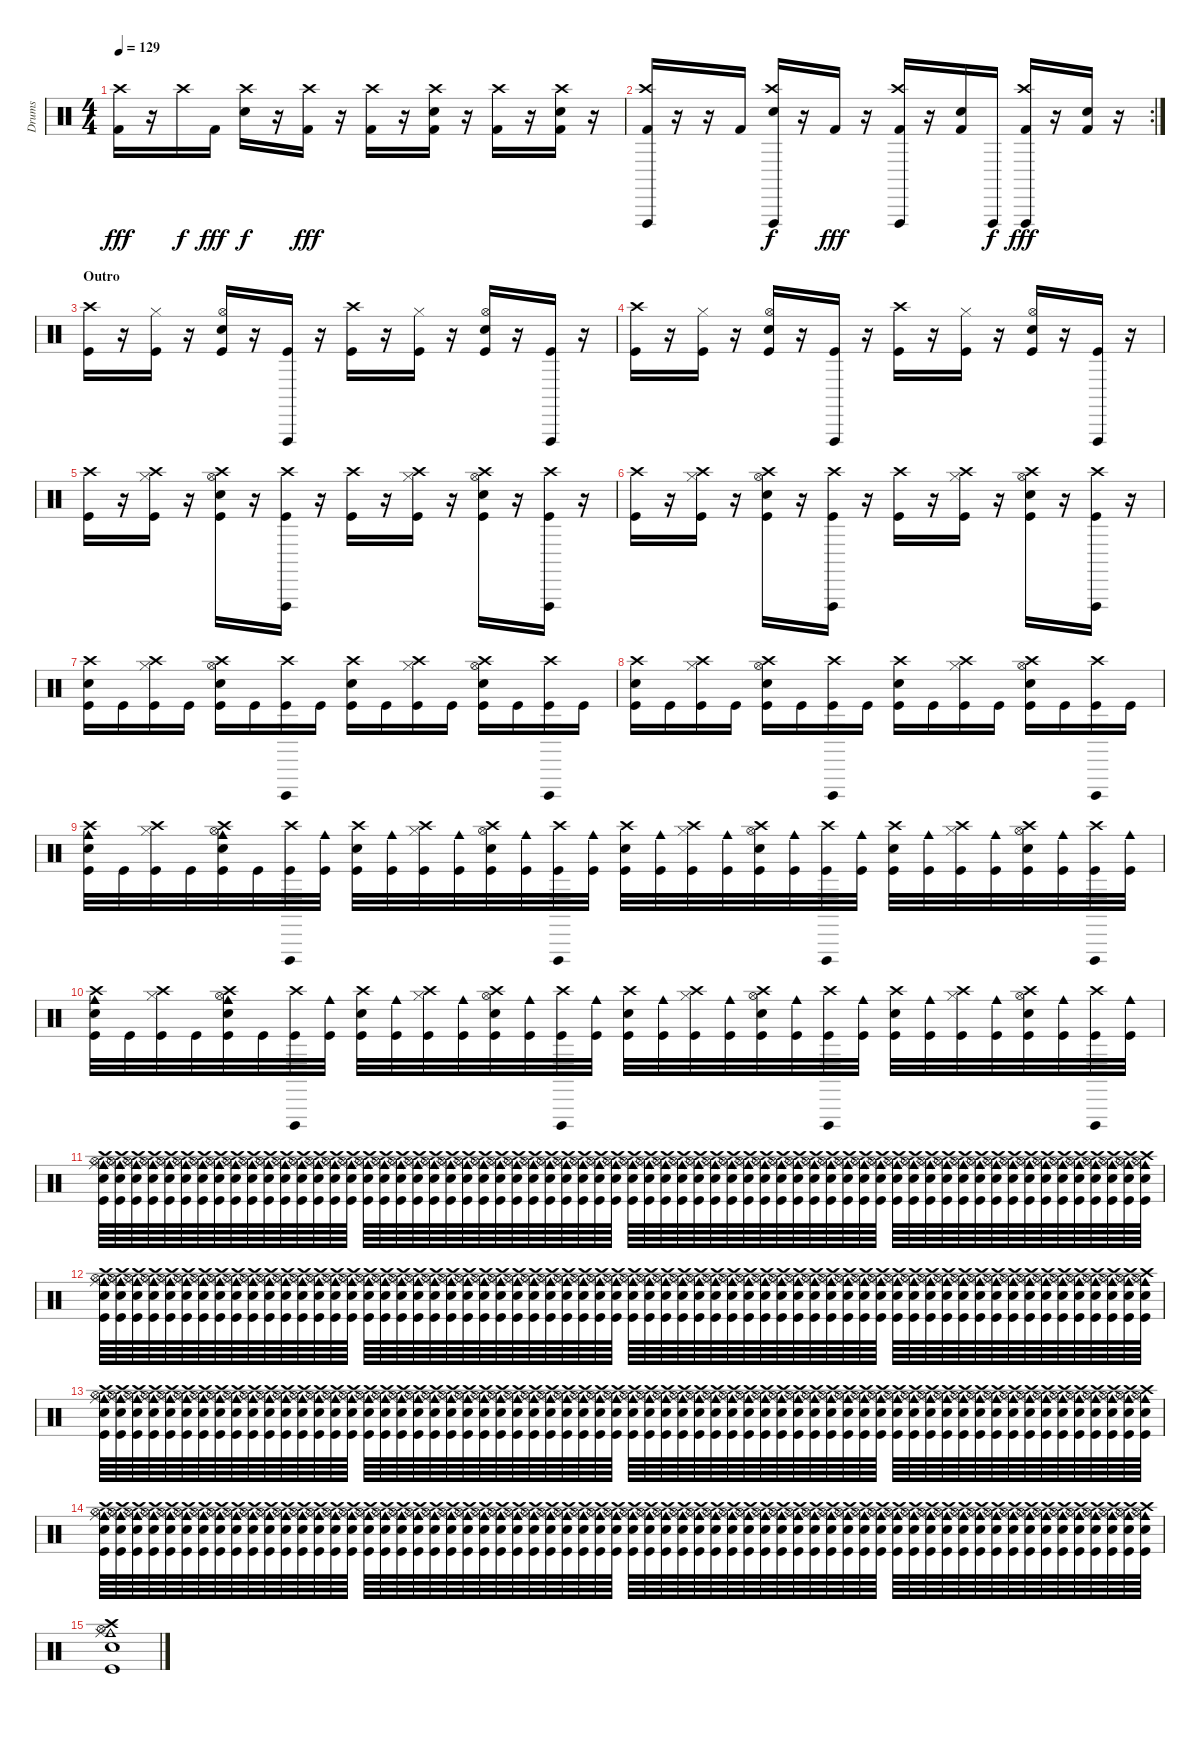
\track ("Drums" "Drums") {instrument percussion}
\staff {score}
\articulation defaults
\ts (4 4)
\tempo 129
\clef neutral
\ks c
("Crash high (hit)" "Kick (hit) 2").16{dy fff} r.16 "Crash high (hit)".16{dy f} "Kick (hit) 2".16{dy fff} ("Crash high (hit)" "Electric Snare (hit)").16{dy f} r.16 ("Crash high (hit)" "Kick (hit) 2").16{dy fff} r.16 ("Crash high (hit)" "Kick (hit) 2").16 r.16 ("Crash high (hit)" "Electric Snare (hit)" "Kick (hit) 2").16 r.16 ("Crash high (hit)" "Kick (hit) 2").16 r.16 ("Crash high (hit)" "Electric Snare (hit)" "Kick (hit) 2").16 r.16 |
\rc 2
("Crash high (hit)" "Vibraslap (hit)" "Kick (hit) 2").16 r.16 r.16 "Kick (hit) 2".16 ("Crash high (hit)" "Vibraslap (hit)" "Electric Snare (hit)").16{dy f} r.16 "Kick (hit) 2".16{dy fff} r.16 ("Crash high (hit)" "Vibraslap (hit)" "Kick (hit) 2").16 r.16 ("Electric Snare (hit)" "Kick (hit) 2").16 "Vibraslap (hit)".16{dy f} ("Crash high (hit)" "Vibraslap (hit)" "Kick (hit) 2").16{dy fff} r.16 ("Electric Snare (hit)" "Kick (hit) 2").16 r.16 |
\section ("" "Outro")
("Crash high (hit)" "Kick (hit)").16 r.16 ("Hi-Hat (closed)" "Kick (hit)").16 r.16 ("Hi-Hat (open)" "Snare (hit) 2" "Kick (hit)").16 r.16 ("Vibraslap (hit)" "Kick (hit)").16 r.16 ("Crash high (hit)" "Kick (hit)").16 r.16 ("Hi-Hat (closed)" "Kick (hit)").16 r.16 ("Hi-Hat (open)" "Snare (hit) 2" "Kick (hit)").16 r.16 ("Vibraslap (hit)" "Kick (hit)").16 r.16 |
("Crash high (hit)" "Kick (hit)").16 r.16 ("Hi-Hat (closed)" "Kick (hit)").16 r.16 ("Hi-Hat (open)" "Snare (hit) 2" "Kick (hit)").16 r.16 ("Vibraslap (hit)" "Kick (hit)").16 r.16 ("Crash high (hit)" "Kick (hit)").16 r.16 ("Hi-Hat (closed)" "Kick (hit)").16 r.16 ("Hi-Hat (open)" "Snare (hit) 2" "Kick (hit)").16 r.16 ("Vibraslap (hit)" "Kick (hit)").16 r.16 |
("Crash high (hit)" "Kick (hit)").16 r.16 ("Crash high (hit)" "Hi-Hat (closed)" "Kick (hit)").16 r.16 ("Crash high (hit)" "Hi-Hat (open)" "Snare (hit) 2" "Kick (hit)").16 r.16 ("Crash high (hit)" "Vibraslap (hit)" "Kick (hit)").16 r.16 ("Crash high (hit)" "Kick (hit)").16 r.16 ("Crash high (hit)" "Hi-Hat (closed)" "Kick (hit)").16 r.16 ("Crash high (hit)" "Hi-Hat (open)" "Snare (hit) 2" "Kick (hit)").16 r.16 ("Crash high (hit)" "Vibraslap (hit)" "Kick (hit)").16 r.16 |
("Crash high (hit)" "Kick (hit)").16 r.16 ("Crash high (hit)" "Hi-Hat (closed)" "Kick (hit)").16 r.16 ("Crash high (hit)" "Hi-Hat (open)" "Snare (hit) 2" "Kick (hit)").16 r.16 ("Crash high (hit)" "Vibraslap (hit)" "Kick (hit)").16 r.16 ("Crash high (hit)" "Kick (hit)").16 r.16 ("Crash high (hit)" "Hi-Hat (closed)" "Kick (hit)").16 r.16 ("Crash high (hit)" "Hi-Hat (open)" "Snare (hit) 2" "Kick (hit)").16 r.16 ("Crash high (hit)" "Vibraslap (hit)" "Kick (hit)").16 r.16 |
("Crash high (hit)" "Snare (hit) 2" "Kick (hit)").16 "Kick (hit)".16 ("Crash high (hit)" "Hi-Hat (closed)" "Kick (hit)").16 "Kick (hit)".16 ("Crash high (hit)" "Hi-Hat (open)" "Snare (hit) 2" "Kick (hit)").16 "Kick (hit)".16 ("Crash high (hit)" "Vibraslap (hit)" "Kick (hit)").16 "Kick (hit)".16 ("Crash high (hit)" "Snare (hit) 2" "Kick (hit)").16 "Kick (hit)".16 ("Crash high (hit)" "Hi-Hat (closed)" "Kick (hit)").16 "Kick (hit)".16 ("Crash high (hit)" "Hi-Hat (open)" "Snare (hit) 2" "Kick (hit)").16 "Kick (hit)".16 ("Crash high (hit)" "Vibraslap (hit)" "Kick (hit)").16 "Kick (hit)".16 |
("Crash high (hit)" "Snare (hit) 2" "Kick (hit)").16 "Kick (hit)".16 ("Crash high (hit)" "Hi-Hat (closed)" "Kick (hit)").16 "Kick (hit)".16 ("Crash high (hit)" "Hi-Hat (open)" "Snare (hit) 2" "Kick (hit)").16 "Kick (hit)".16 ("Crash high (hit)" "Vibraslap (hit)" "Kick (hit)").16 "Kick (hit)".16 ("Crash high (hit)" "Snare (hit) 2" "Kick (hit)").16 "Kick (hit)".16 ("Crash high (hit)" "Hi-Hat (closed)" "Kick (hit)").16 "Kick (hit)".16 ("Crash high (hit)" "Hi-Hat (open)" "Snare (hit) 2" "Kick (hit)").16 "Kick (hit)".16 ("Crash high (hit)" "Vibraslap (hit)" "Kick (hit)").16 "Kick (hit)".16 |
("Cowbell medium (hit)" "Crash high (hit)" "Snare (hit) 2" "Kick (hit)").32 "Kick (hit)".32 ("Crash high (hit)" "Hi-Hat (closed)" "Kick (hit)").32 "Kick (hit)".32 ("Cowbell medium (hit)" "Crash high (hit)" "Hi-Hat (open)" "Snare (hit) 2" "Kick (hit)").32 "Kick (hit)".32 ("Crash high (hit)" "Vibraslap (hit)" "Kick (hit)").32 ("Cowbell medium (hit)" "Kick (hit)").32 ("Crash high (hit)" "Snare (hit) 2" "Kick (hit)").32 ("Cowbell medium (hit)" "Kick (hit)").32 ("Crash high (hit)" "Hi-Hat (closed)" "Kick (hit)").32 ("Cowbell medium (hit)" "Kick (hit)").32 ("Crash high (hit)" "Hi-Hat (open)" "Snare (hit) 2" "Kick (hit)").32 ("Cowbell medium (hit)" "Kick (hit)").32 ("Crash high (hit)" "Vibraslap (hit)" "Kick (hit)").32 ("Cowbell medium (hit)" "Kick (hit)").32 ("Crash high (hit)" "Snare (hit) 2" "Kick (hit)").32 ("Cowbell medium (hit)" "Kick (hit)").32 ("Crash high (hit)" "Hi-Hat (closed)" "Kick (hit)").32 ("Cowbell medium (hit)" "Kick (hit)").32 ("Crash high (hit)" "Hi-Hat (open)" "Snare (hit) 2" "Kick (hit)").32 ("Cowbell medium (hit)" "Kick (hit)").32 ("Crash high (hit)" "Vibraslap (hit)" "Kick (hit)").32 ("Cowbell medium (hit)" "Kick (hit)").32 ("Crash high (hit)" "Snare (hit) 2" "Kick (hit)").32 ("Cowbell medium (hit)" "Kick (hit)").32 ("Crash high (hit)" "Hi-Hat (closed)" "Kick (hit)").32 ("Cowbell medium (hit)" "Kick (hit)").32 ("Crash high (hit)" "Hi-Hat (open)" "Snare (hit) 2" "Kick (hit)").32 ("Cowbell medium (hit)" "Kick (hit)").32 ("Crash high (hit)" "Vibraslap (hit)" "Kick (hit)").32 ("Cowbell medium (hit)" "Kick (hit)").32 |
("Cowbell medium (hit)" "Crash high (hit)" "Snare (hit) 2" "Kick (hit)").32 "Kick (hit)".32 ("Crash high (hit)" "Hi-Hat (closed)" "Kick (hit)").32 "Kick (hit)".32 ("Cowbell medium (hit)" "Crash high (hit)" "Hi-Hat (open)" "Snare (hit) 2" "Kick (hit)").32 "Kick (hit)".32 ("Crash high (hit)" "Vibraslap (hit)" "Kick (hit)").32 ("Cowbell medium (hit)" "Kick (hit)").32 ("Crash high (hit)" "Snare (hit) 2" "Kick (hit)").32 ("Cowbell medium (hit)" "Kick (hit)").32 ("Crash high (hit)" "Hi-Hat (closed)" "Kick (hit)").32 ("Cowbell medium (hit)" "Kick (hit)").32 ("Crash high (hit)" "Hi-Hat (open)" "Snare (hit) 2" "Kick (hit)").32 ("Cowbell medium (hit)" "Kick (hit)").32 ("Crash high (hit)" "Vibraslap (hit)" "Kick (hit)").32 ("Cowbell medium (hit)" "Kick (hit)").32 ("Crash high (hit)" "Snare (hit) 2" "Kick (hit)").32 ("Cowbell medium (hit)" "Kick (hit)").32 ("Crash high (hit)" "Hi-Hat (closed)" "Kick (hit)").32 ("Cowbell medium (hit)" "Kick (hit)").32 ("Crash high (hit)" "Hi-Hat (open)" "Snare (hit) 2" "Kick (hit)").32 ("Cowbell medium (hit)" "Kick (hit)").32 ("Crash high (hit)" "Vibraslap (hit)" "Kick (hit)").32 ("Cowbell medium (hit)" "Kick (hit)").32 ("Crash high (hit)" "Snare (hit) 2" "Kick (hit)").32 ("Cowbell medium (hit)" "Kick (hit)").32 ("Crash high (hit)" "Hi-Hat (closed)" "Kick (hit)").32 ("Cowbell medium (hit)" "Kick (hit)").32 ("Crash high (hit)" "Hi-Hat (open)" "Snare (hit) 2" "Kick (hit)").32 ("Cowbell medium (hit)" "Kick (hit)").32 ("Crash high (hit)" "Vibraslap (hit)" "Kick (hit)").32 ("Cowbell medium (hit)" "Kick (hit)").32 |
("Snare (hit) 2" "Cowbell medium (hit)" "Crash high (hit)" "Ride (middle)" "Hi-Hat (open)" "Kick (hit)").64 ("Snare (hit) 2" "Cowbell medium (hit)" "Crash high (hit)" "Ride (middle)" "Hi-Hat (open)" "Kick (hit)").64 ("Snare (hit) 2" "Cowbell medium (hit)" "Crash high (hit)" "Ride (middle)" "Hi-Hat (open)" "Kick (hit)").64 ("Snare (hit) 2" "Cowbell medium (hit)" "Crash high (hit)" "Ride (middle)" "Hi-Hat (open)" "Kick (hit)").64 ("Snare (hit) 2" "Cowbell medium (hit)" "Crash high (hit)" "Ride (middle)" "Hi-Hat (open)" "Kick (hit)").64 ("Snare (hit) 2" "Cowbell medium (hit)" "Crash high (hit)" "Ride (middle)" "Hi-Hat (open)" "Kick (hit)").64 ("Snare (hit) 2" "Cowbell medium (hit)" "Crash high (hit)" "Ride (middle)" "Hi-Hat (open)" "Kick (hit)").64 ("Snare (hit) 2" "Cowbell medium (hit)" "Crash high (hit)" "Ride (middle)" "Hi-Hat (open)" "Kick (hit)").64 ("Snare (hit) 2" "Cowbell medium (hit)" "Crash high (hit)" "Ride (middle)" "Hi-Hat (open)" "Kick (hit)").64 ("Snare (hit) 2" "Cowbell medium (hit)" "Crash high (hit)" "Ride (middle)" "Hi-Hat (open)" "Kick (hit)").64 ("Snare (hit) 2" "Cowbell medium (hit)" "Crash high (hit)" "Ride (middle)" "Hi-Hat (open)" "Kick (hit)").64 ("Snare (hit) 2" "Cowbell medium (hit)" "Crash high (hit)" "Ride (middle)" "Hi-Hat (open)" "Kick (hit)").64 ("Snare (hit) 2" "Cowbell medium (hit)" "Crash high (hit)" "Ride (middle)" "Hi-Hat (open)" "Kick (hit)").64 ("Snare (hit) 2" "Cowbell medium (hit)" "Crash high (hit)" "Ride (middle)" "Hi-Hat (open)" "Kick (hit)").64 ("Snare (hit) 2" "Cowbell medium (hit)" "Crash high (hit)" "Ride (middle)" "Hi-Hat (open)" "Kick (hit)").64 ("Snare (hit) 2" "Cowbell medium (hit)" "Crash high (hit)" "Ride (middle)" "Hi-Hat (open)" "Kick (hit)").64 ("Snare (hit) 2" "Cowbell medium (hit)" "Crash high (hit)" "Ride (middle)" "Hi-Hat (open)" "Kick (hit)").64 ("Snare (hit) 2" "Cowbell medium (hit)" "Crash high (hit)" "Ride (middle)" "Hi-Hat (open)" "Kick (hit)").64 ("Snare (hit) 2" "Cowbell medium (hit)" "Crash high (hit)" "Ride (middle)" "Hi-Hat (open)" "Kick (hit)").64 ("Snare (hit) 2" "Cowbell medium (hit)" "Crash high (hit)" "Ride (middle)" "Hi-Hat (open)" "Kick (hit)").64 ("Snare (hit) 2" "Cowbell medium (hit)" "Crash high (hit)" "Ride (middle)" "Hi-Hat (open)" "Kick (hit)").64 ("Snare (hit) 2" "Cowbell medium (hit)" "Crash high (hit)" "Ride (middle)" "Hi-Hat (open)" "Kick (hit)").64 ("Snare (hit) 2" "Cowbell medium (hit)" "Crash high (hit)" "Ride (middle)" "Hi-Hat (open)" "Kick (hit)").64 ("Snare (hit) 2" "Cowbell medium (hit)" "Crash high (hit)" "Ride (middle)" "Hi-Hat (open)" "Kick (hit)").64 ("Snare (hit) 2" "Cowbell medium (hit)" "Crash high (hit)" "Ride (middle)" "Hi-Hat (open)" "Kick (hit)").64 ("Snare (hit) 2" "Cowbell medium (hit)" "Crash high (hit)" "Ride (middle)" "Hi-Hat (open)" "Kick (hit)").64 ("Snare (hit) 2" "Cowbell medium (hit)" "Crash high (hit)" "Ride (middle)" "Hi-Hat (open)" "Kick (hit)").64 ("Snare (hit) 2" "Cowbell medium (hit)" "Crash high (hit)" "Ride (middle)" "Hi-Hat (open)" "Kick (hit)").64 ("Snare (hit) 2" "Cowbell medium (hit)" "Crash high (hit)" "Ride (middle)" "Hi-Hat (open)" "Kick (hit)").64 ("Snare (hit) 2" "Cowbell medium (hit)" "Crash high (hit)" "Ride (middle)" "Hi-Hat (open)" "Kick (hit)").64 ("Snare (hit) 2" "Cowbell medium (hit)" "Crash high (hit)" "Ride (middle)" "Hi-Hat (open)" "Kick (hit)").64 ("Snare (hit) 2" "Cowbell medium (hit)" "Crash high (hit)" "Ride (middle)" "Hi-Hat (open)" "Kick (hit)").64 ("Snare (hit) 2" "Cowbell medium (hit)" "Crash high (hit)" "Ride (middle)" "Hi-Hat (open)" "Kick (hit)").64 ("Snare (hit) 2" "Cowbell medium (hit)" "Crash high (hit)" "Ride (middle)" "Hi-Hat (open)" "Kick (hit)").64 ("Snare (hit) 2" "Cowbell medium (hit)" "Crash high (hit)" "Ride (middle)" "Hi-Hat (open)" "Kick (hit)").64 ("Snare (hit) 2" "Cowbell medium (hit)" "Crash high (hit)" "Ride (middle)" "Hi-Hat (open)" "Kick (hit)").64 ("Snare (hit) 2" "Cowbell medium (hit)" "Crash high (hit)" "Ride (middle)" "Hi-Hat (open)" "Kick (hit)").64 ("Snare (hit) 2" "Cowbell medium (hit)" "Crash high (hit)" "Ride (middle)" "Hi-Hat (open)" "Kick (hit)").64 ("Snare (hit) 2" "Cowbell medium (hit)" "Crash high (hit)" "Ride (middle)" "Hi-Hat (open)" "Kick (hit)").64 ("Snare (hit) 2" "Cowbell medium (hit)" "Crash high (hit)" "Ride (middle)" "Hi-Hat (open)" "Kick (hit)").64 ("Snare (hit) 2" "Cowbell medium (hit)" "Crash high (hit)" "Ride (middle)" "Hi-Hat (open)" "Kick (hit)").64 ("Snare (hit) 2" "Cowbell medium (hit)" "Crash high (hit)" "Ride (middle)" "Hi-Hat (open)" "Kick (hit)").64 ("Snare (hit) 2" "Cowbell medium (hit)" "Crash high (hit)" "Ride (middle)" "Hi-Hat (open)" "Kick (hit)").64 ("Snare (hit) 2" "Cowbell medium (hit)" "Crash high (hit)" "Ride (middle)" "Hi-Hat (open)" "Kick (hit)").64 ("Snare (hit) 2" "Cowbell medium (hit)" "Crash high (hit)" "Ride (middle)" "Hi-Hat (open)" "Kick (hit)").64 ("Snare (hit) 2" "Cowbell medium (hit)" "Crash high (hit)" "Ride (middle)" "Hi-Hat (open)" "Kick (hit)").64 ("Snare (hit) 2" "Cowbell medium (hit)" "Crash high (hit)" "Ride (middle)" "Hi-Hat (open)" "Kick (hit)").64 ("Snare (hit) 2" "Cowbell medium (hit)" "Crash high (hit)" "Ride (middle)" "Hi-Hat (open)" "Kick (hit)").64 ("Snare (hit) 2" "Cowbell medium (hit)" "Crash high (hit)" "Ride (middle)" "Hi-Hat (open)" "Kick (hit)").64 ("Snare (hit) 2" "Cowbell medium (hit)" "Crash high (hit)" "Ride (middle)" "Hi-Hat (open)" "Kick (hit)").64 ("Snare (hit) 2" "Cowbell medium (hit)" "Crash high (hit)" "Ride (middle)" "Hi-Hat (open)" "Kick (hit)").64 ("Snare (hit) 2" "Cowbell medium (hit)" "Crash high (hit)" "Ride (middle)" "Hi-Hat (open)" "Kick (hit)").64 ("Snare (hit) 2" "Cowbell medium (hit)" "Crash high (hit)" "Ride (middle)" "Hi-Hat (open)" "Kick (hit)").64 ("Snare (hit) 2" "Cowbell medium (hit)" "Crash high (hit)" "Ride (middle)" "Hi-Hat (open)" "Kick (hit)").64 ("Snare (hit) 2" "Cowbell medium (hit)" "Crash high (hit)" "Ride (middle)" "Hi-Hat (open)" "Kick (hit)").64 ("Snare (hit) 2" "Cowbell medium (hit)" "Crash high (hit)" "Ride (middle)" "Hi-Hat (open)" "Kick (hit)").64 ("Snare (hit) 2" "Cowbell medium (hit)" "Crash high (hit)" "Ride (middle)" "Hi-Hat (open)" "Kick (hit)").64 ("Snare (hit) 2" "Cowbell medium (hit)" "Crash high (hit)" "Ride (middle)" "Hi-Hat (open)" "Kick (hit)").64 ("Snare (hit) 2" "Cowbell medium (hit)" "Crash high (hit)" "Ride (middle)" "Hi-Hat (open)" "Kick (hit)").64 ("Snare (hit) 2" "Cowbell medium (hit)" "Crash high (hit)" "Ride (middle)" "Hi-Hat (open)" "Kick (hit)").64 ("Snare (hit) 2" "Cowbell medium (hit)" "Crash high (hit)" "Ride (middle)" "Hi-Hat (open)" "Kick (hit)").64 ("Snare (hit) 2" "Cowbell medium (hit)" "Crash high (hit)" "Ride (middle)" "Hi-Hat (open)" "Kick (hit)").64 ("Snare (hit) 2" "Cowbell medium (hit)" "Crash high (hit)" "Ride (middle)" "Hi-Hat (open)" "Kick (hit)").64 ("Snare (hit) 2" "Cowbell medium (hit)" "Crash high (hit)" "Ride (middle)" "Hi-Hat (open)" "Kick (hit)").64 |
("Snare (hit) 2" "Cowbell medium (hit)" "Crash high (hit)" "Ride (middle)" "Hi-Hat (open)" "Kick (hit)").64 ("Snare (hit) 2" "Cowbell medium (hit)" "Crash high (hit)" "Ride (middle)" "Hi-Hat (open)" "Kick (hit)").64 ("Snare (hit) 2" "Cowbell medium (hit)" "Crash high (hit)" "Ride (middle)" "Hi-Hat (open)" "Kick (hit)").64 ("Snare (hit) 2" "Cowbell medium (hit)" "Crash high (hit)" "Ride (middle)" "Hi-Hat (open)" "Kick (hit)").64 ("Snare (hit) 2" "Cowbell medium (hit)" "Crash high (hit)" "Ride (middle)" "Hi-Hat (open)" "Kick (hit)").64 ("Snare (hit) 2" "Cowbell medium (hit)" "Crash high (hit)" "Ride (middle)" "Hi-Hat (open)" "Kick (hit)").64 ("Snare (hit) 2" "Cowbell medium (hit)" "Crash high (hit)" "Ride (middle)" "Hi-Hat (open)" "Kick (hit)").64 ("Snare (hit) 2" "Cowbell medium (hit)" "Crash high (hit)" "Ride (middle)" "Hi-Hat (open)" "Kick (hit)").64 ("Snare (hit) 2" "Cowbell medium (hit)" "Crash high (hit)" "Ride (middle)" "Hi-Hat (open)" "Kick (hit)").64 ("Snare (hit) 2" "Cowbell medium (hit)" "Crash high (hit)" "Ride (middle)" "Hi-Hat (open)" "Kick (hit)").64 ("Snare (hit) 2" "Cowbell medium (hit)" "Crash high (hit)" "Ride (middle)" "Hi-Hat (open)" "Kick (hit)").64 ("Snare (hit) 2" "Cowbell medium (hit)" "Crash high (hit)" "Ride (middle)" "Hi-Hat (open)" "Kick (hit)").64 ("Snare (hit) 2" "Cowbell medium (hit)" "Crash high (hit)" "Ride (middle)" "Hi-Hat (open)" "Kick (hit)").64 ("Snare (hit) 2" "Cowbell medium (hit)" "Crash high (hit)" "Ride (middle)" "Hi-Hat (open)" "Kick (hit)").64 ("Snare (hit) 2" "Cowbell medium (hit)" "Crash high (hit)" "Ride (middle)" "Hi-Hat (open)" "Kick (hit)").64 ("Snare (hit) 2" "Cowbell medium (hit)" "Crash high (hit)" "Ride (middle)" "Hi-Hat (open)" "Kick (hit)").64 ("Snare (hit) 2" "Cowbell medium (hit)" "Crash high (hit)" "Ride (middle)" "Hi-Hat (open)" "Kick (hit)").64 ("Snare (hit) 2" "Cowbell medium (hit)" "Crash high (hit)" "Ride (middle)" "Hi-Hat (open)" "Kick (hit)").64 ("Snare (hit) 2" "Cowbell medium (hit)" "Crash high (hit)" "Ride (middle)" "Hi-Hat (open)" "Kick (hit)").64 ("Snare (hit) 2" "Cowbell medium (hit)" "Crash high (hit)" "Ride (middle)" "Hi-Hat (open)" "Kick (hit)").64 ("Snare (hit) 2" "Cowbell medium (hit)" "Crash high (hit)" "Ride (middle)" "Hi-Hat (open)" "Kick (hit)").64 ("Snare (hit) 2" "Cowbell medium (hit)" "Crash high (hit)" "Ride (middle)" "Hi-Hat (open)" "Kick (hit)").64 ("Snare (hit) 2" "Cowbell medium (hit)" "Crash high (hit)" "Ride (middle)" "Hi-Hat (open)" "Kick (hit)").64 ("Snare (hit) 2" "Cowbell medium (hit)" "Crash high (hit)" "Ride (middle)" "Hi-Hat (open)" "Kick (hit)").64 ("Snare (hit) 2" "Cowbell medium (hit)" "Crash high (hit)" "Ride (middle)" "Hi-Hat (open)" "Kick (hit)").64 ("Snare (hit) 2" "Cowbell medium (hit)" "Crash high (hit)" "Ride (middle)" "Hi-Hat (open)" "Kick (hit)").64 ("Snare (hit) 2" "Cowbell medium (hit)" "Crash high (hit)" "Ride (middle)" "Hi-Hat (open)" "Kick (hit)").64 ("Snare (hit) 2" "Cowbell medium (hit)" "Crash high (hit)" "Ride (middle)" "Hi-Hat (open)" "Kick (hit)").64 ("Snare (hit) 2" "Cowbell medium (hit)" "Crash high (hit)" "Ride (middle)" "Hi-Hat (open)" "Kick (hit)").64 ("Snare (hit) 2" "Cowbell medium (hit)" "Crash high (hit)" "Ride (middle)" "Hi-Hat (open)" "Kick (hit)").64 ("Snare (hit) 2" "Cowbell medium (hit)" "Crash high (hit)" "Ride (middle)" "Hi-Hat (open)" "Kick (hit)").64 ("Snare (hit) 2" "Cowbell medium (hit)" "Crash high (hit)" "Ride (middle)" "Hi-Hat (open)" "Kick (hit)").64 ("Snare (hit) 2" "Cowbell medium (hit)" "Crash high (hit)" "Ride (middle)" "Hi-Hat (open)" "Kick (hit)").64 ("Snare (hit) 2" "Cowbell medium (hit)" "Crash high (hit)" "Ride (middle)" "Hi-Hat (open)" "Kick (hit)").64 ("Snare (hit) 2" "Cowbell medium (hit)" "Crash high (hit)" "Ride (middle)" "Hi-Hat (open)" "Kick (hit)").64 ("Snare (hit) 2" "Cowbell medium (hit)" "Crash high (hit)" "Ride (middle)" "Hi-Hat (open)" "Kick (hit)").64 ("Snare (hit) 2" "Cowbell medium (hit)" "Crash high (hit)" "Ride (middle)" "Hi-Hat (open)" "Kick (hit)").64 ("Snare (hit) 2" "Cowbell medium (hit)" "Crash high (hit)" "Ride (middle)" "Hi-Hat (open)" "Kick (hit)").64 ("Snare (hit) 2" "Cowbell medium (hit)" "Crash high (hit)" "Ride (middle)" "Hi-Hat (open)" "Kick (hit)").64 ("Snare (hit) 2" "Cowbell medium (hit)" "Crash high (hit)" "Ride (middle)" "Hi-Hat (open)" "Kick (hit)").64 ("Snare (hit) 2" "Cowbell medium (hit)" "Crash high (hit)" "Ride (middle)" "Hi-Hat (open)" "Kick (hit)").64 ("Snare (hit) 2" "Cowbell medium (hit)" "Crash high (hit)" "Ride (middle)" "Hi-Hat (open)" "Kick (hit)").64 ("Snare (hit) 2" "Cowbell medium (hit)" "Crash high (hit)" "Ride (middle)" "Hi-Hat (open)" "Kick (hit)").64 ("Snare (hit) 2" "Cowbell medium (hit)" "Crash high (hit)" "Ride (middle)" "Hi-Hat (open)" "Kick (hit)").64 ("Snare (hit) 2" "Cowbell medium (hit)" "Crash high (hit)" "Ride (middle)" "Hi-Hat (open)" "Kick (hit)").64 ("Snare (hit) 2" "Cowbell medium (hit)" "Crash high (hit)" "Ride (middle)" "Hi-Hat (open)" "Kick (hit)").64 ("Snare (hit) 2" "Cowbell medium (hit)" "Crash high (hit)" "Ride (middle)" "Hi-Hat (open)" "Kick (hit)").64 ("Snare (hit) 2" "Cowbell medium (hit)" "Crash high (hit)" "Ride (middle)" "Hi-Hat (open)" "Kick (hit)").64 ("Snare (hit) 2" "Cowbell medium (hit)" "Crash high (hit)" "Ride (middle)" "Hi-Hat (open)" "Kick (hit)").64 ("Snare (hit) 2" "Cowbell medium (hit)" "Crash high (hit)" "Ride (middle)" "Hi-Hat (open)" "Kick (hit)").64 ("Snare (hit) 2" "Cowbell medium (hit)" "Crash high (hit)" "Ride (middle)" "Hi-Hat (open)" "Kick (hit)").64 ("Snare (hit) 2" "Cowbell medium (hit)" "Crash high (hit)" "Ride (middle)" "Hi-Hat (open)" "Kick (hit)").64 ("Snare (hit) 2" "Cowbell medium (hit)" "Crash high (hit)" "Ride (middle)" "Hi-Hat (open)" "Kick (hit)").64 ("Snare (hit) 2" "Cowbell medium (hit)" "Crash high (hit)" "Ride (middle)" "Hi-Hat (open)" "Kick (hit)").64 ("Snare (hit) 2" "Cowbell medium (hit)" "Crash high (hit)" "Ride (middle)" "Hi-Hat (open)" "Kick (hit)").64 ("Snare (hit) 2" "Cowbell medium (hit)" "Crash high (hit)" "Ride (middle)" "Hi-Hat (open)" "Kick (hit)").64 ("Snare (hit) 2" "Cowbell medium (hit)" "Crash high (hit)" "Ride (middle)" "Hi-Hat (open)" "Kick (hit)").64 ("Snare (hit) 2" "Cowbell medium (hit)" "Crash high (hit)" "Ride (middle)" "Hi-Hat (open)" "Kick (hit)").64 ("Snare (hit) 2" "Cowbell medium (hit)" "Crash high (hit)" "Ride (middle)" "Hi-Hat (open)" "Kick (hit)").64 ("Snare (hit) 2" "Cowbell medium (hit)" "Crash high (hit)" "Ride (middle)" "Hi-Hat (open)" "Kick (hit)").64 ("Snare (hit) 2" "Cowbell medium (hit)" "Crash high (hit)" "Ride (middle)" "Hi-Hat (open)" "Kick (hit)").64 ("Snare (hit) 2" "Cowbell medium (hit)" "Crash high (hit)" "Ride (middle)" "Hi-Hat (open)" "Kick (hit)").64 ("Snare (hit) 2" "Cowbell medium (hit)" "Crash high (hit)" "Ride (middle)" "Hi-Hat (open)" "Kick (hit)").64 ("Snare (hit) 2" "Cowbell medium (hit)" "Crash high (hit)" "Ride (middle)" "Hi-Hat (open)" "Kick (hit)").64 |
("Snare (hit) 2" "Cowbell medium (hit)" "Crash high (hit)" "Ride (middle)" "Hi-Hat (open)" "Kick (hit)").64 ("Snare (hit) 2" "Cowbell medium (hit)" "Crash high (hit)" "Ride (middle)" "Hi-Hat (open)" "Kick (hit)").64 ("Snare (hit) 2" "Cowbell medium (hit)" "Crash high (hit)" "Ride (middle)" "Hi-Hat (open)" "Kick (hit)").64 ("Snare (hit) 2" "Cowbell medium (hit)" "Crash high (hit)" "Ride (middle)" "Hi-Hat (open)" "Kick (hit)").64 ("Snare (hit) 2" "Cowbell medium (hit)" "Crash high (hit)" "Ride (middle)" "Hi-Hat (open)" "Kick (hit)").64 ("Snare (hit) 2" "Cowbell medium (hit)" "Crash high (hit)" "Ride (middle)" "Hi-Hat (open)" "Kick (hit)").64 ("Snare (hit) 2" "Cowbell medium (hit)" "Crash high (hit)" "Ride (middle)" "Hi-Hat (open)" "Kick (hit)").64 ("Snare (hit) 2" "Cowbell medium (hit)" "Crash high (hit)" "Ride (middle)" "Hi-Hat (open)" "Kick (hit)").64 ("Snare (hit) 2" "Cowbell medium (hit)" "Crash high (hit)" "Ride (middle)" "Hi-Hat (open)" "Kick (hit)").64 ("Snare (hit) 2" "Cowbell medium (hit)" "Crash high (hit)" "Ride (middle)" "Hi-Hat (open)" "Kick (hit)").64 ("Snare (hit) 2" "Cowbell medium (hit)" "Crash high (hit)" "Ride (middle)" "Hi-Hat (open)" "Kick (hit)").64 ("Snare (hit) 2" "Cowbell medium (hit)" "Crash high (hit)" "Ride (middle)" "Hi-Hat (open)" "Kick (hit)").64 ("Snare (hit) 2" "Cowbell medium (hit)" "Crash high (hit)" "Ride (middle)" "Hi-Hat (open)" "Kick (hit)").64 ("Snare (hit) 2" "Cowbell medium (hit)" "Crash high (hit)" "Ride (middle)" "Hi-Hat (open)" "Kick (hit)").64 ("Snare (hit) 2" "Cowbell medium (hit)" "Crash high (hit)" "Ride (middle)" "Hi-Hat (open)" "Kick (hit)").64 ("Snare (hit) 2" "Cowbell medium (hit)" "Crash high (hit)" "Ride (middle)" "Hi-Hat (open)" "Kick (hit)").64 ("Snare (hit) 2" "Cowbell medium (hit)" "Crash high (hit)" "Ride (middle)" "Hi-Hat (open)" "Kick (hit)").64 ("Snare (hit) 2" "Cowbell medium (hit)" "Crash high (hit)" "Ride (middle)" "Hi-Hat (open)" "Kick (hit)").64 ("Snare (hit) 2" "Cowbell medium (hit)" "Crash high (hit)" "Ride (middle)" "Hi-Hat (open)" "Kick (hit)").64 ("Snare (hit) 2" "Cowbell medium (hit)" "Crash high (hit)" "Ride (middle)" "Hi-Hat (open)" "Kick (hit)").64 ("Snare (hit) 2" "Cowbell medium (hit)" "Crash high (hit)" "Ride (middle)" "Hi-Hat (open)" "Kick (hit)").64 ("Snare (hit) 2" "Cowbell medium (hit)" "Crash high (hit)" "Ride (middle)" "Hi-Hat (open)" "Kick (hit)").64 ("Snare (hit) 2" "Cowbell medium (hit)" "Crash high (hit)" "Ride (middle)" "Hi-Hat (open)" "Kick (hit)").64 ("Snare (hit) 2" "Cowbell medium (hit)" "Crash high (hit)" "Ride (middle)" "Hi-Hat (open)" "Kick (hit)").64 ("Snare (hit) 2" "Cowbell medium (hit)" "Crash high (hit)" "Ride (middle)" "Hi-Hat (open)" "Kick (hit)").64 ("Snare (hit) 2" "Cowbell medium (hit)" "Crash high (hit)" "Ride (middle)" "Hi-Hat (open)" "Kick (hit)").64 ("Snare (hit) 2" "Cowbell medium (hit)" "Crash high (hit)" "Ride (middle)" "Hi-Hat (open)" "Kick (hit)").64 ("Snare (hit) 2" "Cowbell medium (hit)" "Crash high (hit)" "Ride (middle)" "Hi-Hat (open)" "Kick (hit)").64 ("Snare (hit) 2" "Cowbell medium (hit)" "Crash high (hit)" "Ride (middle)" "Hi-Hat (open)" "Kick (hit)").64 ("Snare (hit) 2" "Cowbell medium (hit)" "Crash high (hit)" "Ride (middle)" "Hi-Hat (open)" "Kick (hit)").64 ("Snare (hit) 2" "Cowbell medium (hit)" "Crash high (hit)" "Ride (middle)" "Hi-Hat (open)" "Kick (hit)").64 ("Snare (hit) 2" "Cowbell medium (hit)" "Crash high (hit)" "Ride (middle)" "Hi-Hat (open)" "Kick (hit)").64 ("Snare (hit) 2" "Cowbell medium (hit)" "Crash high (hit)" "Ride (middle)" "Hi-Hat (open)" "Kick (hit)").64 ("Snare (hit) 2" "Cowbell medium (hit)" "Crash high (hit)" "Ride (middle)" "Hi-Hat (open)" "Kick (hit)").64 ("Snare (hit) 2" "Cowbell medium (hit)" "Crash high (hit)" "Ride (middle)" "Hi-Hat (open)" "Kick (hit)").64 ("Snare (hit) 2" "Cowbell medium (hit)" "Crash high (hit)" "Ride (middle)" "Hi-Hat (open)" "Kick (hit)").64 ("Snare (hit) 2" "Cowbell medium (hit)" "Crash high (hit)" "Ride (middle)" "Hi-Hat (open)" "Kick (hit)").64 ("Snare (hit) 2" "Cowbell medium (hit)" "Crash high (hit)" "Ride (middle)" "Hi-Hat (open)" "Kick (hit)").64 ("Snare (hit) 2" "Cowbell medium (hit)" "Crash high (hit)" "Ride (middle)" "Hi-Hat (open)" "Kick (hit)").64 ("Snare (hit) 2" "Cowbell medium (hit)" "Crash high (hit)" "Ride (middle)" "Hi-Hat (open)" "Kick (hit)").64 ("Snare (hit) 2" "Cowbell medium (hit)" "Crash high (hit)" "Ride (middle)" "Hi-Hat (open)" "Kick (hit)").64 ("Snare (hit) 2" "Cowbell medium (hit)" "Crash high (hit)" "Ride (middle)" "Hi-Hat (open)" "Kick (hit)").64 ("Snare (hit) 2" "Cowbell medium (hit)" "Crash high (hit)" "Ride (middle)" "Hi-Hat (open)" "Kick (hit)").64 ("Snare (hit) 2" "Cowbell medium (hit)" "Crash high (hit)" "Ride (middle)" "Hi-Hat (open)" "Kick (hit)").64 ("Snare (hit) 2" "Cowbell medium (hit)" "Crash high (hit)" "Ride (middle)" "Hi-Hat (open)" "Kick (hit)").64 ("Snare (hit) 2" "Cowbell medium (hit)" "Crash high (hit)" "Ride (middle)" "Hi-Hat (open)" "Kick (hit)").64 ("Snare (hit) 2" "Cowbell medium (hit)" "Crash high (hit)" "Ride (middle)" "Hi-Hat (open)" "Kick (hit)").64 ("Snare (hit) 2" "Cowbell medium (hit)" "Crash high (hit)" "Ride (middle)" "Hi-Hat (open)" "Kick (hit)").64 ("Snare (hit) 2" "Cowbell medium (hit)" "Crash high (hit)" "Ride (middle)" "Hi-Hat (open)" "Kick (hit)").64 ("Snare (hit) 2" "Cowbell medium (hit)" "Crash high (hit)" "Ride (middle)" "Hi-Hat (open)" "Kick (hit)").64 ("Snare (hit) 2" "Cowbell medium (hit)" "Crash high (hit)" "Ride (middle)" "Hi-Hat (open)" "Kick (hit)").64 ("Snare (hit) 2" "Cowbell medium (hit)" "Crash high (hit)" "Ride (middle)" "Hi-Hat (open)" "Kick (hit)").64 ("Snare (hit) 2" "Cowbell medium (hit)" "Crash high (hit)" "Ride (middle)" "Hi-Hat (open)" "Kick (hit)").64 ("Snare (hit) 2" "Cowbell medium (hit)" "Crash high (hit)" "Ride (middle)" "Hi-Hat (open)" "Kick (hit)").64 ("Snare (hit) 2" "Cowbell medium (hit)" "Crash high (hit)" "Ride (middle)" "Hi-Hat (open)" "Kick (hit)").64 ("Snare (hit) 2" "Cowbell medium (hit)" "Crash high (hit)" "Ride (middle)" "Hi-Hat (open)" "Kick (hit)").64 ("Snare (hit) 2" "Cowbell medium (hit)" "Crash high (hit)" "Ride (middle)" "Hi-Hat (open)" "Kick (hit)").64 ("Snare (hit) 2" "Cowbell medium (hit)" "Crash high (hit)" "Ride (middle)" "Hi-Hat (open)" "Kick (hit)").64 ("Snare (hit) 2" "Cowbell medium (hit)" "Crash high (hit)" "Ride (middle)" "Hi-Hat (open)" "Kick (hit)").64 ("Snare (hit) 2" "Cowbell medium (hit)" "Crash high (hit)" "Ride (middle)" "Hi-Hat (open)" "Kick (hit)").64 ("Snare (hit) 2" "Cowbell medium (hit)" "Crash high (hit)" "Ride (middle)" "Hi-Hat (open)" "Kick (hit)").64 ("Snare (hit) 2" "Cowbell medium (hit)" "Crash high (hit)" "Ride (middle)" "Hi-Hat (open)" "Kick (hit)").64 ("Snare (hit) 2" "Cowbell medium (hit)" "Crash high (hit)" "Ride (middle)" "Hi-Hat (open)" "Kick (hit)").64 ("Snare (hit) 2" "Cowbell medium (hit)" "Crash high (hit)" "Ride (middle)" "Hi-Hat (open)" "Kick (hit)").64 |
("Snare (hit) 2" "Cowbell medium (hit)" "Crash high (hit)" "Ride (middle)" "Hi-Hat (open)" "Kick (hit)").64 ("Snare (hit) 2" "Cowbell medium (hit)" "Crash high (hit)" "Ride (middle)" "Hi-Hat (open)" "Kick (hit)").64 ("Snare (hit) 2" "Cowbell medium (hit)" "Crash high (hit)" "Ride (middle)" "Hi-Hat (open)" "Kick (hit)").64 ("Snare (hit) 2" "Cowbell medium (hit)" "Crash high (hit)" "Ride (middle)" "Hi-Hat (open)" "Kick (hit)").64 ("Snare (hit) 2" "Cowbell medium (hit)" "Crash high (hit)" "Ride (middle)" "Hi-Hat (open)" "Kick (hit)").64 ("Snare (hit) 2" "Cowbell medium (hit)" "Crash high (hit)" "Ride (middle)" "Hi-Hat (open)" "Kick (hit)").64 ("Snare (hit) 2" "Cowbell medium (hit)" "Crash high (hit)" "Ride (middle)" "Hi-Hat (open)" "Kick (hit)").64 ("Snare (hit) 2" "Cowbell medium (hit)" "Crash high (hit)" "Ride (middle)" "Hi-Hat (open)" "Kick (hit)").64 ("Snare (hit) 2" "Cowbell medium (hit)" "Crash high (hit)" "Ride (middle)" "Hi-Hat (open)" "Kick (hit)").64 ("Snare (hit) 2" "Cowbell medium (hit)" "Crash high (hit)" "Ride (middle)" "Hi-Hat (open)" "Kick (hit)").64 ("Snare (hit) 2" "Cowbell medium (hit)" "Crash high (hit)" "Ride (middle)" "Hi-Hat (open)" "Kick (hit)").64 ("Snare (hit) 2" "Cowbell medium (hit)" "Crash high (hit)" "Ride (middle)" "Hi-Hat (open)" "Kick (hit)").64 ("Snare (hit) 2" "Cowbell medium (hit)" "Crash high (hit)" "Ride (middle)" "Hi-Hat (open)" "Kick (hit)").64 ("Snare (hit) 2" "Cowbell medium (hit)" "Crash high (hit)" "Ride (middle)" "Hi-Hat (open)" "Kick (hit)").64 ("Snare (hit) 2" "Cowbell medium (hit)" "Crash high (hit)" "Ride (middle)" "Hi-Hat (open)" "Kick (hit)").64 ("Snare (hit) 2" "Cowbell medium (hit)" "Crash high (hit)" "Ride (middle)" "Hi-Hat (open)" "Kick (hit)").64 ("Snare (hit) 2" "Cowbell medium (hit)" "Crash high (hit)" "Ride (middle)" "Hi-Hat (open)" "Kick (hit)").64 ("Snare (hit) 2" "Cowbell medium (hit)" "Crash high (hit)" "Ride (middle)" "Hi-Hat (open)" "Kick (hit)").64 ("Snare (hit) 2" "Cowbell medium (hit)" "Crash high (hit)" "Ride (middle)" "Hi-Hat (open)" "Kick (hit)").64 ("Snare (hit) 2" "Cowbell medium (hit)" "Crash high (hit)" "Ride (middle)" "Hi-Hat (open)" "Kick (hit)").64 ("Snare (hit) 2" "Cowbell medium (hit)" "Crash high (hit)" "Ride (middle)" "Hi-Hat (open)" "Kick (hit)").64 ("Snare (hit) 2" "Cowbell medium (hit)" "Crash high (hit)" "Ride (middle)" "Hi-Hat (open)" "Kick (hit)").64 ("Snare (hit) 2" "Cowbell medium (hit)" "Crash high (hit)" "Ride (middle)" "Hi-Hat (open)" "Kick (hit)").64 ("Snare (hit) 2" "Cowbell medium (hit)" "Crash high (hit)" "Ride (middle)" "Hi-Hat (open)" "Kick (hit)").64 ("Snare (hit) 2" "Cowbell medium (hit)" "Crash high (hit)" "Ride (middle)" "Hi-Hat (open)" "Kick (hit)").64 ("Snare (hit) 2" "Cowbell medium (hit)" "Crash high (hit)" "Ride (middle)" "Hi-Hat (open)" "Kick (hit)").64 ("Snare (hit) 2" "Cowbell medium (hit)" "Crash high (hit)" "Ride (middle)" "Hi-Hat (open)" "Kick (hit)").64 ("Snare (hit) 2" "Cowbell medium (hit)" "Crash high (hit)" "Ride (middle)" "Hi-Hat (open)" "Kick (hit)").64 ("Snare (hit) 2" "Cowbell medium (hit)" "Crash high (hit)" "Ride (middle)" "Hi-Hat (open)" "Kick (hit)").64 ("Snare (hit) 2" "Cowbell medium (hit)" "Crash high (hit)" "Ride (middle)" "Hi-Hat (open)" "Kick (hit)").64 ("Snare (hit) 2" "Cowbell medium (hit)" "Crash high (hit)" "Ride (middle)" "Hi-Hat (open)" "Kick (hit)").64 ("Snare (hit) 2" "Cowbell medium (hit)" "Crash high (hit)" "Ride (middle)" "Hi-Hat (open)" "Kick (hit)").64 ("Snare (hit) 2" "Cowbell medium (hit)" "Crash high (hit)" "Ride (middle)" "Hi-Hat (open)" "Kick (hit)").64 ("Snare (hit) 2" "Cowbell medium (hit)" "Crash high (hit)" "Ride (middle)" "Hi-Hat (open)" "Kick (hit)").64 ("Snare (hit) 2" "Cowbell medium (hit)" "Crash high (hit)" "Ride (middle)" "Hi-Hat (open)" "Kick (hit)").64 ("Snare (hit) 2" "Cowbell medium (hit)" "Crash high (hit)" "Ride (middle)" "Hi-Hat (open)" "Kick (hit)").64 ("Snare (hit) 2" "Cowbell medium (hit)" "Crash high (hit)" "Ride (middle)" "Hi-Hat (open)" "Kick (hit)").64 ("Snare (hit) 2" "Cowbell medium (hit)" "Crash high (hit)" "Ride (middle)" "Hi-Hat (open)" "Kick (hit)").64 ("Snare (hit) 2" "Cowbell medium (hit)" "Crash high (hit)" "Ride (middle)" "Hi-Hat (open)" "Kick (hit)").64 ("Snare (hit) 2" "Cowbell medium (hit)" "Crash high (hit)" "Ride (middle)" "Hi-Hat (open)" "Kick (hit)").64 ("Snare (hit) 2" "Cowbell medium (hit)" "Crash high (hit)" "Ride (middle)" "Hi-Hat (open)" "Kick (hit)").64 ("Snare (hit) 2" "Cowbell medium (hit)" "Crash high (hit)" "Ride (middle)" "Hi-Hat (open)" "Kick (hit)").64 ("Snare (hit) 2" "Cowbell medium (hit)" "Crash high (hit)" "Ride (middle)" "Hi-Hat (open)" "Kick (hit)").64 ("Snare (hit) 2" "Cowbell medium (hit)" "Crash high (hit)" "Ride (middle)" "Hi-Hat (open)" "Kick (hit)").64 ("Snare (hit) 2" "Cowbell medium (hit)" "Crash high (hit)" "Ride (middle)" "Hi-Hat (open)" "Kick (hit)").64 ("Snare (hit) 2" "Cowbell medium (hit)" "Crash high (hit)" "Ride (middle)" "Hi-Hat (open)" "Kick (hit)").64 ("Snare (hit) 2" "Cowbell medium (hit)" "Crash high (hit)" "Ride (middle)" "Hi-Hat (open)" "Kick (hit)").64 ("Snare (hit) 2" "Cowbell medium (hit)" "Crash high (hit)" "Ride (middle)" "Hi-Hat (open)" "Kick (hit)").64 ("Snare (hit) 2" "Cowbell medium (hit)" "Crash high (hit)" "Ride (middle)" "Hi-Hat (open)" "Kick (hit)").64 ("Snare (hit) 2" "Cowbell medium (hit)" "Crash high (hit)" "Ride (middle)" "Hi-Hat (open)" "Kick (hit)").64 ("Snare (hit) 2" "Cowbell medium (hit)" "Crash high (hit)" "Ride (middle)" "Hi-Hat (open)" "Kick (hit)").64 ("Snare (hit) 2" "Cowbell medium (hit)" "Crash high (hit)" "Ride (middle)" "Hi-Hat (open)" "Kick (hit)").64 ("Snare (hit) 2" "Cowbell medium (hit)" "Crash high (hit)" "Ride (middle)" "Hi-Hat (open)" "Kick (hit)").64 ("Snare (hit) 2" "Cowbell medium (hit)" "Crash high (hit)" "Ride (middle)" "Hi-Hat (open)" "Kick (hit)").64 ("Snare (hit) 2" "Cowbell medium (hit)" "Crash high (hit)" "Ride (middle)" "Hi-Hat (open)" "Kick (hit)").64 ("Snare (hit) 2" "Cowbell medium (hit)" "Crash high (hit)" "Ride (middle)" "Hi-Hat (open)" "Kick (hit)").64 ("Snare (hit) 2" "Cowbell medium (hit)" "Crash high (hit)" "Ride (middle)" "Hi-Hat (open)" "Kick (hit)").64 ("Snare (hit) 2" "Cowbell medium (hit)" "Crash high (hit)" "Ride (middle)" "Hi-Hat (open)" "Kick (hit)").64 ("Snare (hit) 2" "Cowbell medium (hit)" "Crash high (hit)" "Ride (middle)" "Hi-Hat (open)" "Kick (hit)").64 ("Snare (hit) 2" "Cowbell medium (hit)" "Crash high (hit)" "Ride (middle)" "Hi-Hat (open)" "Kick (hit)").64 ("Snare (hit) 2" "Cowbell medium (hit)" "Crash high (hit)" "Ride (middle)" "Hi-Hat (open)" "Kick (hit)").64 ("Snare (hit) 2" "Cowbell medium (hit)" "Crash high (hit)" "Ride (middle)" "Hi-Hat (open)" "Kick (hit)").64 ("Snare (hit) 2" "Cowbell medium (hit)" "Crash high (hit)" "Ride (middle)" "Hi-Hat (open)" "Kick (hit)").64 ("Snare (hit) 2" "Cowbell medium (hit)" "Crash high (hit)" "Ride (middle)" "Hi-Hat (open)" "Kick (hit)").64 |
("Snare (hit) 2" "Cowbell medium (hit)" "Crash high (hit)" "Ride (middle)" "Hi-Hat (open)" "Kick (hit)").1
